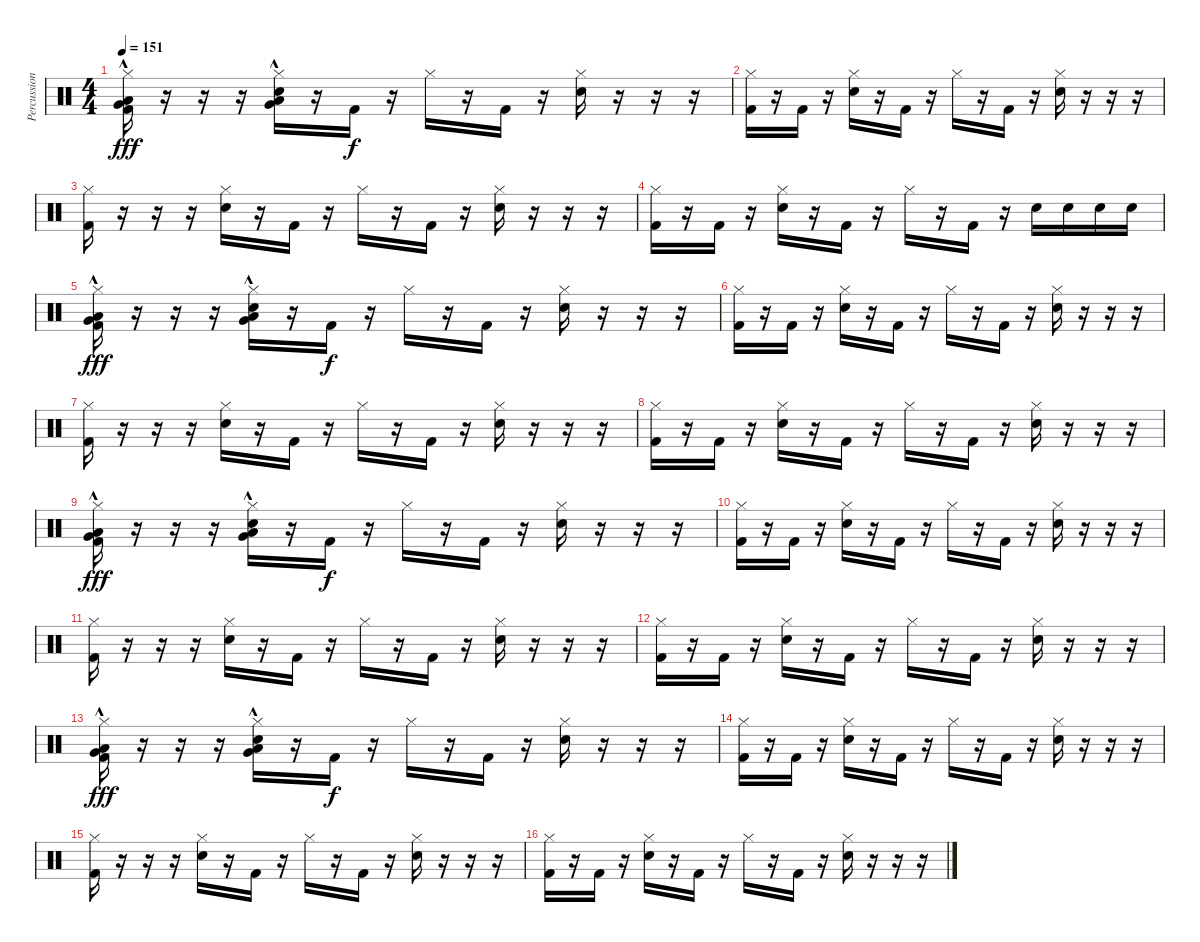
\track ("Percussion" "Percussion") {instrument percussion}
\staff {score}
\articulation defaults
\ts (4 4)
\tempo 151
\clef neutral
\ks c
("Hi-Hat (closed)" "Very Low Tom (hit)"{hac} "Low Floor Tom (hit)"{hac} "Kick (hit) 2").16{dy fff} r.16 r.16 r.16 ("Hi-Hat (closed)" "Very Low Tom (hit)"{hac} "Low Floor Tom (hit)"{hac} "Snare (hit) 2").16 r.16 "Kick (hit) 2".16{dy f} r.16 "Hi-Hat (closed)".16 r.16 "Kick (hit) 2".16 r.16 ("Hi-Hat (closed)" "Snare (hit) 2").16 r.16 r.16 r.16 |
("Hi-Hat (closed)" "Kick (hit) 2").16 r.16 "Kick (hit) 2".16 r.16 ("Hi-Hat (closed)" "Snare (hit) 2").16 r.16 "Kick (hit) 2".16 r.16 "Hi-Hat (closed)".16 r.16 "Kick (hit) 2".16 r.16 ("Hi-Hat (closed)" "Snare (hit) 2").16 r.16 r.16 r.16 |
("Hi-Hat (closed)" "Kick (hit) 2").16 r.16 r.16 r.16 ("Hi-Hat (closed)" "Snare (hit) 2").16 r.16 "Kick (hit) 2".16 r.16 "Hi-Hat (closed)".16 r.16 "Kick (hit) 2".16 r.16 ("Hi-Hat (closed)" "Snare (hit) 2").16 r.16 r.16 r.16 |
("Hi-Hat (closed)" "Kick (hit) 2").16 r.16 "Kick (hit) 2".16 r.16 ("Hi-Hat (closed)" "Snare (hit) 2").16 r.16 "Kick (hit) 2".16 r.16 "Hi-Hat (closed)".16 r.16 "Kick (hit) 2".16 r.16 "Snare (hit) 2".16 "Snare (hit) 2".16 "Snare (hit) 2".16 "Snare (hit) 2".16 |
("Hi-Hat (closed)" "Very Low Tom (hit)"{hac} "Low Floor Tom (hit)"{hac} "Kick (hit) 2").16{dy fff} r.16 r.16 r.16 ("Hi-Hat (closed)" "Very Low Tom (hit)"{hac} "Low Floor Tom (hit)"{hac} "Snare (hit) 2").16 r.16 "Kick (hit) 2".16{dy f} r.16 "Hi-Hat (closed)".16 r.16 "Kick (hit) 2".16 r.16 ("Hi-Hat (closed)" "Snare (hit) 2").16 r.16 r.16 r.16 |
("Hi-Hat (closed)" "Kick (hit) 2").16 r.16 "Kick (hit) 2".16 r.16 ("Hi-Hat (closed)" "Snare (hit) 2").16 r.16 "Kick (hit) 2".16 r.16 "Hi-Hat (closed)".16 r.16 "Kick (hit) 2".16 r.16 ("Hi-Hat (closed)" "Snare (hit) 2").16 r.16 r.16 r.16 |
("Hi-Hat (closed)" "Kick (hit) 2").16 r.16 r.16 r.16 ("Hi-Hat (closed)" "Snare (hit) 2").16 r.16 "Kick (hit) 2".16 r.16 "Hi-Hat (closed)".16 r.16 "Kick (hit) 2".16 r.16 ("Hi-Hat (closed)" "Snare (hit) 2").16 r.16 r.16 r.16 |
("Hi-Hat (closed)" "Kick (hit) 2").16 r.16 "Kick (hit) 2".16 r.16 ("Hi-Hat (closed)" "Snare (hit) 2").16 r.16 "Kick (hit) 2".16 r.16 "Hi-Hat (closed)".16 r.16 "Kick (hit) 2".16 r.16 ("Hi-Hat (closed)" "Snare (hit) 2").16 r.16 r.16 r.16 |
("Hi-Hat (closed)" "Very Low Tom (hit)"{hac} "Low Floor Tom (hit)"{hac} "Kick (hit) 2").16{dy fff} r.16 r.16 r.16 ("Hi-Hat (closed)" "Very Low Tom (hit)"{hac} "Low Floor Tom (hit)"{hac} "Snare (hit) 2").16 r.16 "Kick (hit) 2".16{dy f} r.16 "Hi-Hat (closed)".16 r.16 "Kick (hit) 2".16 r.16 ("Hi-Hat (closed)" "Snare (hit) 2").16 r.16 r.16 r.16 |
("Hi-Hat (closed)" "Kick (hit) 2").16 r.16 "Kick (hit) 2".16 r.16 ("Hi-Hat (closed)" "Snare (hit) 2").16 r.16 "Kick (hit) 2".16 r.16 "Hi-Hat (closed)".16 r.16 "Kick (hit) 2".16 r.16 ("Hi-Hat (closed)" "Snare (hit) 2").16 r.16 r.16 r.16 |
("Hi-Hat (closed)" "Kick (hit) 2").16 r.16 r.16 r.16 ("Hi-Hat (closed)" "Snare (hit) 2").16 r.16 "Kick (hit) 2".16 r.16 "Hi-Hat (closed)".16 r.16 "Kick (hit) 2".16 r.16 ("Hi-Hat (closed)" "Snare (hit) 2").16 r.16 r.16 r.16 |
("Hi-Hat (closed)" "Kick (hit) 2").16 r.16 "Kick (hit) 2".16 r.16 ("Hi-Hat (closed)" "Snare (hit) 2").16 r.16 "Kick (hit) 2".16 r.16 "Hi-Hat (closed)".16 r.16 "Kick (hit) 2".16 r.16 ("Hi-Hat (closed)" "Snare (hit) 2").16 r.16 r.16 r.16 |
("Hi-Hat (closed)" "Very Low Tom (hit)"{hac} "Low Floor Tom (hit)"{hac} "Kick (hit) 2").16{dy fff} r.16 r.16 r.16 ("Hi-Hat (closed)" "Very Low Tom (hit)"{hac} "Low Floor Tom (hit)"{hac} "Snare (hit) 2").16 r.16 "Kick (hit) 2".16{dy f} r.16 "Hi-Hat (closed)".16 r.16 "Kick (hit) 2".16 r.16 ("Hi-Hat (closed)" "Snare (hit) 2").16 r.16 r.16 r.16 |
("Hi-Hat (closed)" "Kick (hit) 2").16 r.16 "Kick (hit) 2".16 r.16 ("Hi-Hat (closed)" "Snare (hit) 2").16 r.16 "Kick (hit) 2".16 r.16 "Hi-Hat (closed)".16 r.16 "Kick (hit) 2".16 r.16 ("Hi-Hat (closed)" "Snare (hit) 2").16 r.16 r.16 r.16 |
("Hi-Hat (closed)" "Kick (hit) 2").16 r.16 r.16 r.16 ("Hi-Hat (closed)" "Snare (hit) 2").16 r.16 "Kick (hit) 2".16 r.16 "Hi-Hat (closed)".16 r.16 "Kick (hit) 2".16 r.16 ("Hi-Hat (closed)" "Snare (hit) 2").16 r.16 r.16 r.16 |
("Hi-Hat (closed)" "Kick (hit) 2").16 r.16 "Kick (hit) 2".16 r.16 ("Hi-Hat (closed)" "Snare (hit) 2").16 r.16 "Kick (hit) 2".16 r.16 "Hi-Hat (closed)".16 r.16 "Kick (hit) 2".16 r.16 ("Hi-Hat (closed)" "Snare (hit) 2").16 r.16 r.16 r.16
